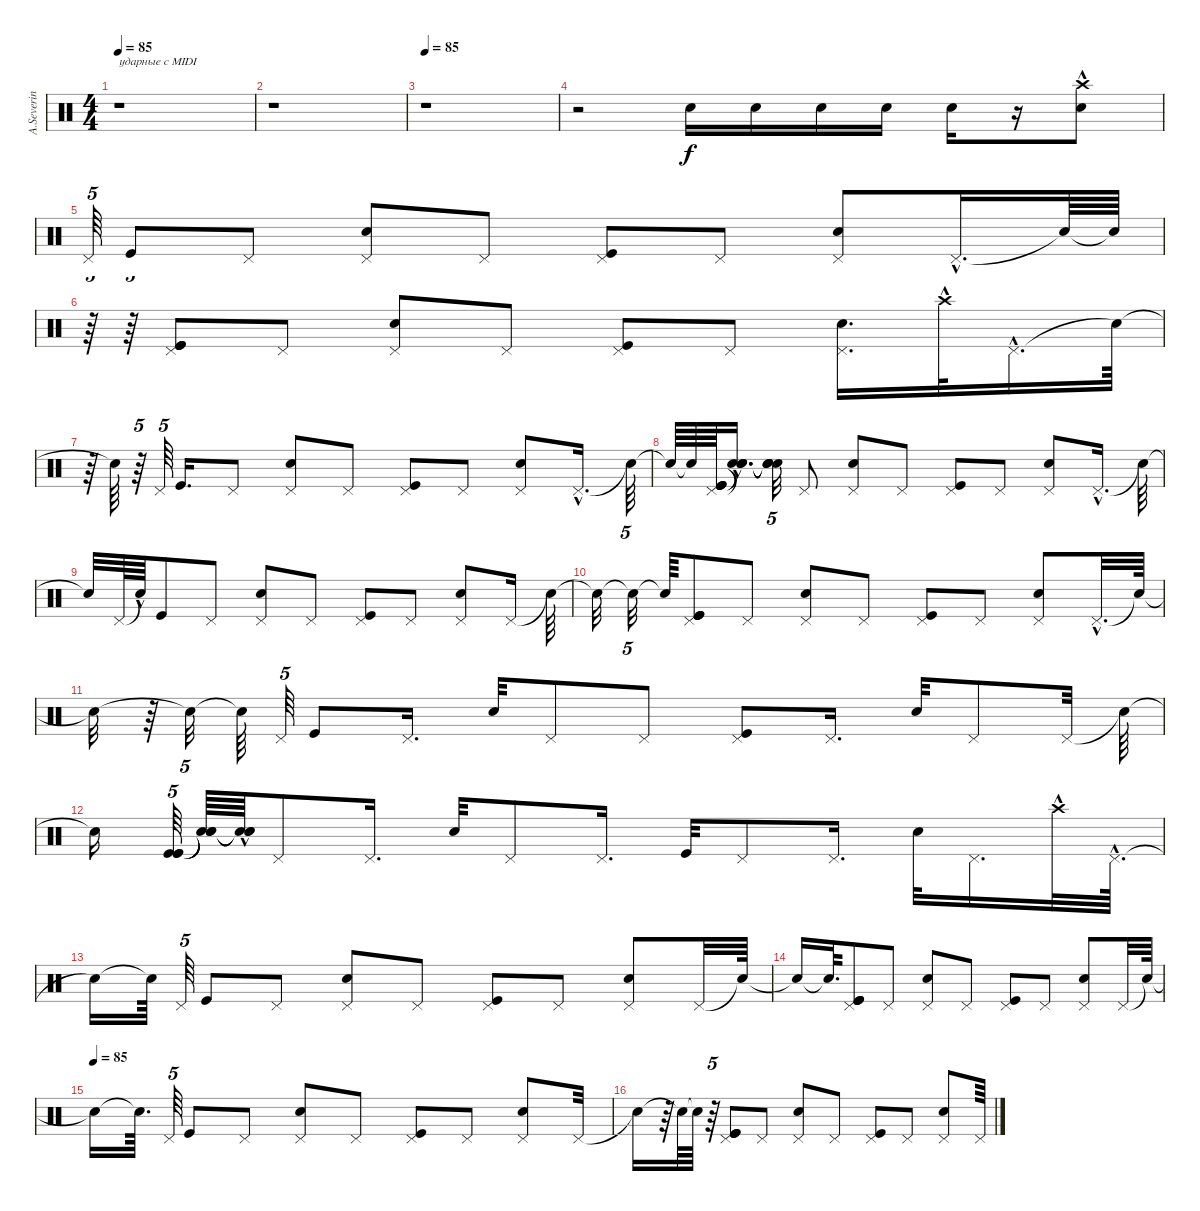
\track ("A.Severin        Drums                  " "A.Severin ") {instrument percussion}
\staff {score}
\articulation defaults
\ts (4 4)
\tempo 85
\clef neutral
\ks c
r.1{txt "ударные с MIDI" dy f} |
r.1 |
\tempo 85
r.1 |
r.2 "Electric Snare (hit)".16 "Electric Snare (hit)".16 "Electric Snare (hit)".16 "Electric Snare (hit)".16 "Electric Snare (hit)".16 r.16 ("Electric Snare (hit)" "Crash high (hit)"{hac}).8 |
"Pedal Hi-Hat (hit)".64{tu (5 4)} "Kick (hit)".8 "Pedal Hi-Hat (hit)".8 ("Electric Snare (hit)" "Pedal Hi-Hat (hit)").8 "Pedal Hi-Hat (hit)".8 ("Kick (hit)" "Pedal Hi-Hat (hit)").8 "Pedal Hi-Hat (hit)".8 ("Electric Snare (hit)" "Pedal Hi-Hat (hit)").8 "Pedal Hi-Hat (hit)"{hac}.16{d} "Snare (hit)"{t}.64 "Snare (hit)"{t}.64 |
r.64{tu (5 4)} r.64{tu (5 4)} ("Kick (hit)" "Kick (hit)" "Kick (hit)" "Pedal Hi-Hat (hit)").8 "Pedal Hi-Hat (hit)".8 ("Electric Snare (hit)" "Pedal Hi-Hat (hit)").8 "Pedal Hi-Hat (hit)".8 ("Kick (hit)" "Pedal Hi-Hat (hit)").8 "Pedal Hi-Hat (hit)".8 ("Electric Snare (hit)" "Pedal Hi-Hat (hit)").16{d} "Crash high (hit)"{hac}.32 "Pedal Hi-Hat (hit)"{hac}.16{d} "Snare (hit)"{t}.64 |
r.64 "Snare (hit)"{t}.64 r.64{tu (5 4)} "Pedal Hi-Hat (hit)".64{tu (5 4)} "Kick (hit)".16{d} "Pedal Hi-Hat (hit)".8 ("Electric Snare (hit)" "Pedal Hi-Hat (hit)").8 "Pedal Hi-Hat (hit)".8 ("Kick (hit)" "Pedal Hi-Hat (hit)").8 "Pedal Hi-Hat (hit)".8 ("Electric Snare (hit)" "Pedal Hi-Hat (hit)").8 "Pedal Hi-Hat (hit)"{hac}.16{d} "Snare (hit)"{t}.64{tu (5 4)} |
"Snare (hit)"{t}.64 "Snare (hit)"{t}.64 ("Kick (hit)" "Kick (hit)" "Kick (hit)" "Pedal Hi-Hat (hit)").64 ("Snare (hit)"{hac t} "Snare (hit)"{hac t} "Snare (hit)"{hac t} "Snare (hit)"{hac t}).16{d} ("Snare (hit)"{t} "Snare (hit)"{t} "Snare (hit)"{t} "Snare (hit)"{t}).32{tu (5 4)} "Pedal Hi-Hat (hit)".8 ("Electric Snare (hit)" "Pedal Hi-Hat (hit)").8 "Pedal Hi-Hat (hit)".8 ("Kick (hit)" "Pedal Hi-Hat (hit)").8 "Pedal Hi-Hat (hit)".8 ("Electric Snare (hit)" "Pedal Hi-Hat (hit)").8 "Pedal Hi-Hat (hit)"{hac}.16{d} "Snare (hit)"{t}.64 |
"Snare (hit)"{t}.32 "Pedal Hi-Hat (hit)".64 "Snare (hit)"{hac t}.64 "Kick (hit)".8 "Pedal Hi-Hat (hit)".8 ("Electric Snare (hit)" "Pedal Hi-Hat (hit)").8 "Pedal Hi-Hat (hit)".8 ("Kick (hit)" "Pedal Hi-Hat (hit)").8 "Pedal Hi-Hat (hit)".8 ("Electric Snare (hit)" "Pedal Hi-Hat (hit)").8 "Pedal Hi-Hat (hit)".16 "Snare (hit)"{t}.64 |
"Snare (hit)"{t}.32 "Snare (hit)"{t}.32{tu (5 4)} "Snare (hit)"{t}.64 ("Kick (hit)" "Kick (hit)" "Kick (hit)" "Pedal Hi-Hat (hit)").8 "Pedal Hi-Hat (hit)".8 ("Electric Snare (hit)" "Pedal Hi-Hat (hit)").8 "Pedal Hi-Hat (hit)".8 ("Kick (hit)" "Pedal Hi-Hat (hit)").8 "Pedal Hi-Hat (hit)".8 ("Electric Snare (hit)" "Pedal Hi-Hat (hit)").8 "Pedal Hi-Hat (hit)"{hac}.32{d} "Snare (hit)"{t}.64 |
"Snare (hit)"{t}.32 r.64 "Snare (hit)"{t}.32{tu (5 4)} "Snare (hit)"{t}.64 "Pedal Hi-Hat (hit)".64{tu (5 4)} "Kick (hit)".8 "Pedal Hi-Hat (hit)".16{d} "Electric Snare (hit)".32 "Pedal Hi-Hat (hit)".8 "Pedal Hi-Hat (hit)".8 ("Kick (hit)" "Pedal Hi-Hat (hit)").8 "Pedal Hi-Hat (hit)".16{d} "Electric Snare (hit)".32 "Pedal Hi-Hat (hit)".8 "Pedal Hi-Hat (hit)".32 "Snare (hit)"{t}.64 |
"Snare (hit)"{t}.16 ("Kick (hit)" "Kick (hit)" "Kick (hit)").64{tu (5 4)} ("Snare (hit)"{t} "Snare (hit)"{t} "Snare (hit)"{t}).64 ("Snare (hit)"{hac t} "Snare (hit)"{hac t} "Snare (hit)"{hac t}).64 "Pedal Hi-Hat (hit)".8 "Pedal Hi-Hat (hit)".16{d} "Electric Snare (hit)".32 "Pedal Hi-Hat (hit)".8 "Pedal Hi-Hat (hit)".16{d} "Kick (hit)".32 "Pedal Hi-Hat (hit)".8 "Pedal Hi-Hat (hit)".16{d} "Electric Snare (hit)".32 "Pedal Hi-Hat (hit)".16{d} "Crash high (hit)"{hac}.32 "Pedal Hi-Hat (hit)"{hac}.64{d} |
"Snare (hit)"{t}.16 "Snare (hit)"{t}.64 "Pedal Hi-Hat (hit)".64{tu (5 4)} "Kick (hit)".8 "Pedal Hi-Hat (hit)".8 ("Electric Snare (hit)" "Pedal Hi-Hat (hit)").8 "Pedal Hi-Hat (hit)".8 ("Kick (hit)" "Pedal Hi-Hat (hit)").8 "Pedal Hi-Hat (hit)".8 ("Electric Snare (hit)" "Pedal Hi-Hat (hit)").8 "Pedal Hi-Hat (hit)".32 "Snare (hit)"{t}.64 |
"Snare (hit)"{t}.16 "Snare (hit)"{t}.64{d} ("Kick (hit)" "Kick (hit)" "Kick (hit)" "Pedal Hi-Hat (hit)").8 "Pedal Hi-Hat (hit)".8 ("Electric Snare (hit)" "Pedal Hi-Hat (hit)").8 "Pedal Hi-Hat (hit)".8 ("Kick (hit)" "Pedal Hi-Hat (hit)").8 "Pedal Hi-Hat (hit)".8 ("Electric Snare (hit)" "Pedal Hi-Hat (hit)").8 "Pedal Hi-Hat (hit)".32 "Snare (hit)"{t}.64 |
\tempo (85)
"Snare (hit)"{t}.16 "Snare (hit)"{t}.64{d} "Pedal Hi-Hat (hit)".64{tu (5 4)} "Kick (hit)".8 "Pedal Hi-Hat (hit)".8 ("Electric Snare (hit)" "Pedal Hi-Hat (hit)").8 "Pedal Hi-Hat (hit)".8 ("Kick (hit)" "Pedal Hi-Hat (hit)").8 "Pedal Hi-Hat (hit)".8 ("Electric Snare (hit)" "Pedal Hi-Hat (hit)").8 "Pedal Hi-Hat (hit)".32 |
"Snare (hit)"{t}.16 r.64 "Snare (hit)"{t}.64 "Snare (hit)"{t}.64 r.64{tu (5 4)} ("Kick (hit)" "Kick (hit)" "Kick (hit)" "Pedal Hi-Hat (hit)").8 "Pedal Hi-Hat (hit)".8 ("Electric Snare (hit)" "Pedal Hi-Hat (hit)").8 "Pedal Hi-Hat (hit)".8 ("Kick (hit)" "Pedal Hi-Hat (hit)").8 "Pedal Hi-Hat (hit)".8 ("Electric Snare (hit)" "Pedal Hi-Hat (hit)").8 "Pedal Hi-Hat (hit)".64
